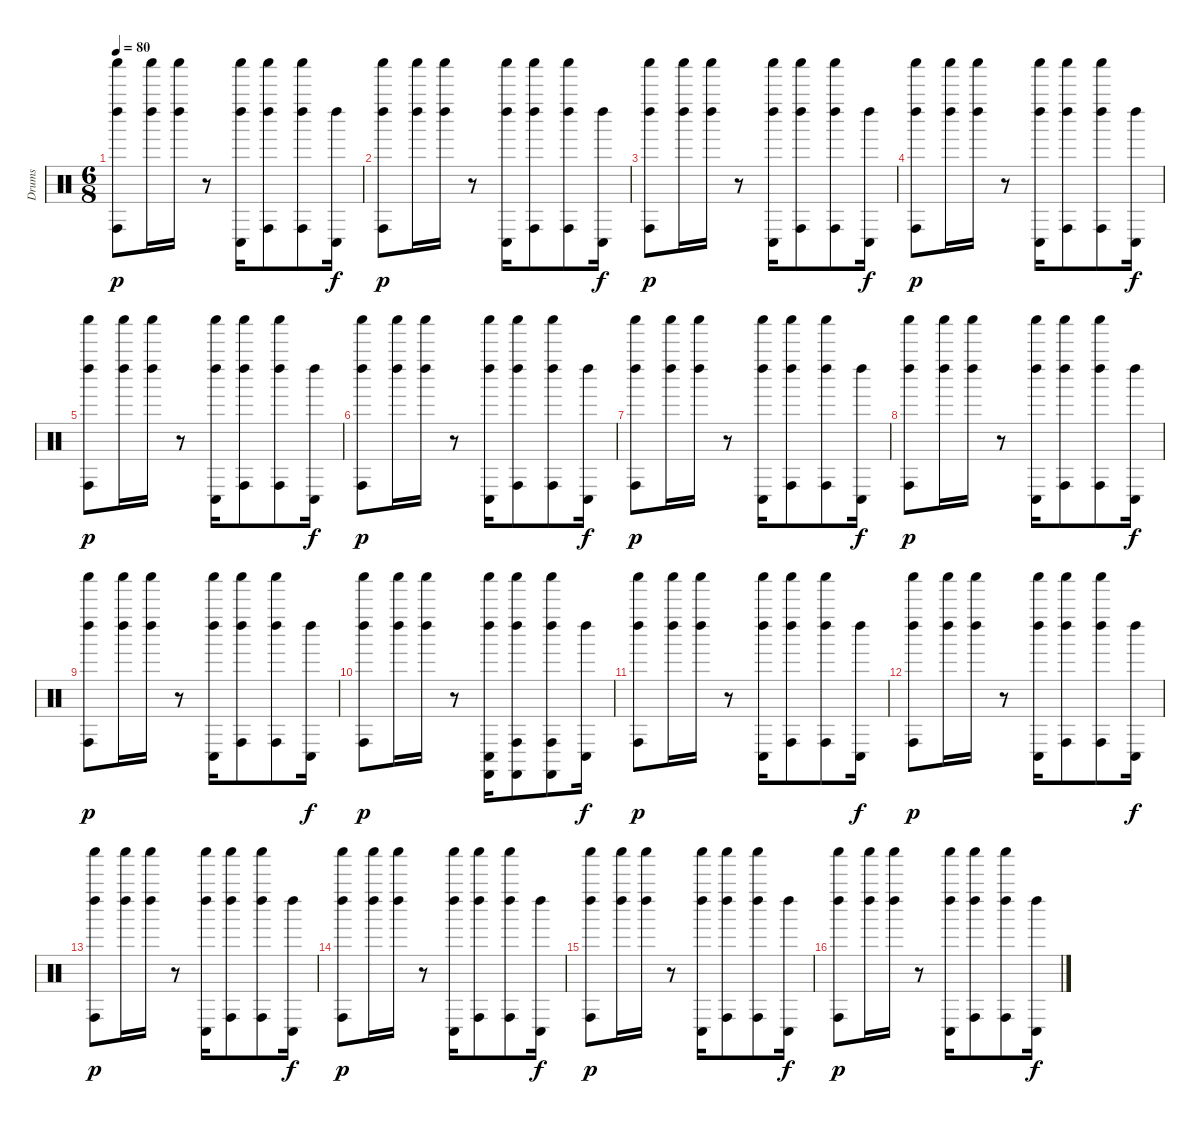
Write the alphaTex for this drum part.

\track ("Drums" "Drums") {instrument percussion}
\staff {score}
\articulation defaults
\ts (6 8)
\tempo 80
\clef neutral
\ks c
("Conga high (hit)" "Shaker (hit)" "Left Maraca (hit)").8{dy p balance 8} ("Shaker (hit)" "Left Maraca (hit)").16 ("Shaker (hit)" "Left Maraca (hit)").16 r.8 ("Conga low (hit)" "Shaker (hit)" "Left Maraca (hit)").16{balance 8} ("Conga high (hit)" "Shaker (hit)" "Left Maraca (hit)").8{balance 0} ("Conga high (hit)" "Shaker (hit)" "Left Maraca (hit)").8{balance 8} ("Conga low (hit)" "Left Maraca (hit)").16{dy f balance 0} |
("Conga high (hit)" "Shaker (hit)" "Left Maraca (hit)").8{dy p balance 8} ("Shaker (hit)" "Left Maraca (hit)").16 ("Shaker (hit)" "Left Maraca (hit)").16 r.8 ("Conga low (hit)" "Shaker (hit)" "Left Maraca (hit)").16{balance 8} ("Conga high (hit)" "Shaker (hit)" "Left Maraca (hit)").8{balance 16} ("Conga high (hit)" "Shaker (hit)" "Left Maraca (hit)").8{balance 8} ("Conga low (hit)" "Left Maraca (hit)").16{dy f balance 16} |
("Conga high (hit)" "Shaker (hit)" "Left Maraca (hit)").8{dy p balance 8} ("Shaker (hit)" "Left Maraca (hit)").16 ("Shaker (hit)" "Left Maraca (hit)").16 r.8 ("Conga low (hit)" "Shaker (hit)" "Left Maraca (hit)").16{balance 8} ("Conga high (hit)" "Shaker (hit)" "Left Maraca (hit)").8{balance 16} ("Conga high (hit)" "Shaker (hit)" "Left Maraca (hit)").8{balance 8} ("Conga low (hit)" "Left Maraca (hit)").16{dy f balance 16} |
("Conga high (hit)" "Shaker (hit)" "Left Maraca (hit)").8{dy p balance 8} ("Shaker (hit)" "Left Maraca (hit)").16 ("Shaker (hit)" "Left Maraca (hit)").16 r.8 ("Conga low (hit)" "Shaker (hit)" "Left Maraca (hit)").16{balance 8} ("Conga high (hit)" "Shaker (hit)" "Left Maraca (hit)").8{balance 0} ("Conga high (hit)" "Shaker (hit)" "Left Maraca (hit)").8{balance 8} ("Conga low (hit)" "Left Maraca (hit)").16{dy f balance 0} |
("Conga high (hit)" "Shaker (hit)" "Left Maraca (hit)").8{dy p balance 8} ("Shaker (hit)" "Left Maraca (hit)").16 ("Shaker (hit)" "Left Maraca (hit)").16 r.8 ("Conga low (hit)" "Shaker (hit)" "Left Maraca (hit)").16{balance 8} ("Conga high (hit)" "Shaker (hit)" "Left Maraca (hit)").8{balance 0} ("Conga high (hit)" "Shaker (hit)" "Left Maraca (hit)").8{balance 8} ("Conga low (hit)" "Left Maraca (hit)").16{dy f balance 0} |
("Conga high (hit)" "Shaker (hit)" "Left Maraca (hit)").8{dy p balance 8} ("Shaker (hit)" "Left Maraca (hit)").16 ("Shaker (hit)" "Left Maraca (hit)").16 r.8 ("Conga low (hit)" "Shaker (hit)" "Left Maraca (hit)").16{balance 8} ("Conga high (hit)" "Shaker (hit)" "Left Maraca (hit)").8{balance 16} ("Conga high (hit)" "Shaker (hit)" "Left Maraca (hit)").8{balance 8} ("Conga low (hit)" "Left Maraca (hit)").16{dy f balance 16} |
("Conga high (hit)" "Shaker (hit)" "Left Maraca (hit)").8{dy p balance 8} ("Shaker (hit)" "Left Maraca (hit)").16 ("Shaker (hit)" "Left Maraca (hit)").16 r.8 ("Conga low (hit)" "Shaker (hit)" "Left Maraca (hit)").16{balance 8} ("Conga high (hit)" "Shaker (hit)" "Left Maraca (hit)").8{balance 16} ("Conga high (hit)" "Shaker (hit)" "Left Maraca (hit)").8{balance 8} ("Conga low (hit)" "Left Maraca (hit)").16{dy f balance 16} |
("Conga high (hit)" "Shaker (hit)" "Left Maraca (hit)").8{dy p balance 8} ("Shaker (hit)" "Left Maraca (hit)").16 ("Shaker (hit)" "Left Maraca (hit)").16 r.8 ("Conga low (hit)" "Shaker (hit)" "Left Maraca (hit)").16{balance 8} ("Conga high (hit)" "Shaker (hit)" "Left Maraca (hit)").8{balance 0} ("Conga high (hit)" "Shaker (hit)" "Left Maraca (hit)").8{balance 8} ("Conga low (hit)" "Left Maraca (hit)").16{dy f balance 0} |
("Conga high (hit)" "Shaker (hit)" "Left Maraca (hit)").8{dy p balance 8} ("Shaker (hit)" "Left Maraca (hit)").16 ("Shaker (hit)" "Left Maraca (hit)").16 r.8 ("Conga low (hit)" "Shaker (hit)" "Left Maraca (hit)").16{balance 8} ("Conga high (hit)" "Shaker (hit)" "Left Maraca (hit)").8{balance 0} ("Conga high (hit)" "Shaker (hit)" "Left Maraca (hit)").8{balance 8} ("Conga low (hit)" "Left Maraca (hit)").16{dy f balance 0} |
("Conga high (hit)" "Shaker (hit)" "Left Maraca (hit)").8{dy p balance 8} ("Shaker (hit)" "Left Maraca (hit)").16 ("Shaker (hit)" "Left Maraca (hit)").16 r.8 ("Conga low (hit)" "Shaker (hit)" "Left Maraca (hit)" "Castanets (hit)").16{balance 3} ("Conga high (hit)" "Shaker (hit)" "Left Maraca (hit)" "Castanets (hit)").8{balance 6} ("Conga high (hit)" "Shaker (hit)" "Left Maraca (hit)" "Castanets (hit)").8{balance 9} ("Conga low (hit)" "Left Maraca (hit)").16{dy f balance 16} |
("Conga high (hit)" "Shaker (hit)" "Left Maraca (hit)").8{dy p balance 8} ("Shaker (hit)" "Left Maraca (hit)").16 ("Shaker (hit)" "Left Maraca (hit)").16 r.8 ("Conga low (hit)" "Shaker (hit)" "Left Maraca (hit)").16{balance 8} ("Conga high (hit)" "Shaker (hit)" "Left Maraca (hit)").8{balance 16} ("Conga high (hit)" "Shaker (hit)" "Left Maraca (hit)").8{balance 8} ("Conga low (hit)" "Left Maraca (hit)").16{dy f balance 16} |
("Conga high (hit)" "Shaker (hit)" "Left Maraca (hit)").8{dy p balance 8} ("Shaker (hit)" "Left Maraca (hit)").16 ("Shaker (hit)" "Left Maraca (hit)").16 r.8 ("Conga low (hit)" "Shaker (hit)" "Left Maraca (hit)").16{balance 8} ("Conga high (hit)" "Shaker (hit)" "Left Maraca (hit)").8{balance 0} ("Conga high (hit)" "Shaker (hit)" "Left Maraca (hit)").8{balance 8} ("Conga low (hit)" "Left Maraca (hit)").16{dy f balance 0} |
("Conga high (hit)" "Shaker (hit)" "Left Maraca (hit)").8{dy p balance 8} ("Shaker (hit)" "Left Maraca (hit)").16 ("Shaker (hit)" "Left Maraca (hit)").16 r.8 ("Conga low (hit)" "Shaker (hit)" "Left Maraca (hit)").16{balance 8} ("Conga high (hit)" "Shaker (hit)" "Left Maraca (hit)").8{balance 0} ("Conga high (hit)" "Shaker (hit)" "Left Maraca (hit)").8{balance 8} ("Conga low (hit)" "Left Maraca (hit)").16{dy f balance 0} |
("Conga high (hit)" "Shaker (hit)" "Left Maraca (hit)").8{dy p balance 8} ("Shaker (hit)" "Left Maraca (hit)").16 ("Shaker (hit)" "Left Maraca (hit)").16 r.8 ("Conga low (hit)" "Shaker (hit)" "Left Maraca (hit)").16{balance 8} ("Conga high (hit)" "Shaker (hit)" "Left Maraca (hit)").8{balance 16} ("Conga high (hit)" "Shaker (hit)" "Left Maraca (hit)").8{balance 8} ("Conga low (hit)" "Left Maraca (hit)").16{dy f balance 16} |
("Conga high (hit)" "Shaker (hit)" "Left Maraca (hit)").8{dy p balance 8} ("Shaker (hit)" "Left Maraca (hit)").16 ("Shaker (hit)" "Left Maraca (hit)").16 r.8 ("Conga low (hit)" "Shaker (hit)" "Left Maraca (hit)").16{balance 8} ("Conga high (hit)" "Shaker (hit)" "Left Maraca (hit)").8{balance 16} ("Conga high (hit)" "Shaker (hit)" "Left Maraca (hit)").8{balance 8} ("Conga low (hit)" "Left Maraca (hit)").16{dy f balance 16} |
("Conga high (hit)" "Shaker (hit)" "Left Maraca (hit)").8{dy p balance 8} ("Shaker (hit)" "Left Maraca (hit)").16 ("Shaker (hit)" "Left Maraca (hit)").16 r.8 ("Conga low (hit)" "Shaker (hit)" "Left Maraca (hit)").16{balance 8} ("Conga high (hit)" "Shaker (hit)" "Left Maraca (hit)").8{balance 0} ("Conga high (hit)" "Shaker (hit)" "Left Maraca (hit)").8{balance 8} ("Conga low (hit)" "Left Maraca (hit)").16{dy f balance 0}
